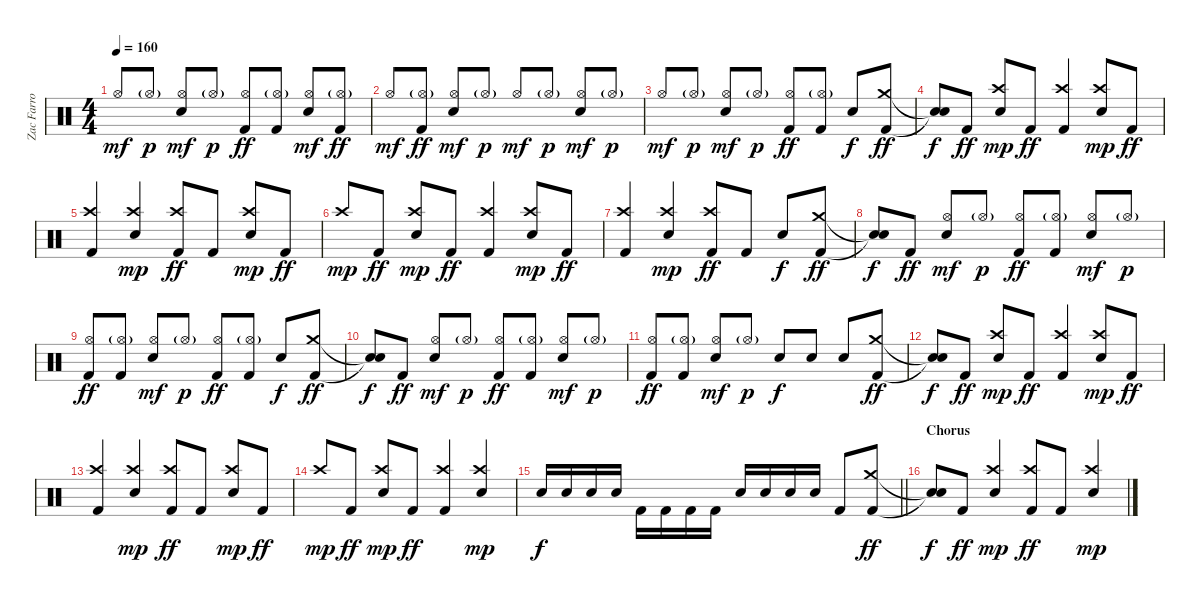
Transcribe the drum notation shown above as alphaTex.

\track ("Zac Farro" "Zac Farro") {instrument percussion}
\staff {score}
\articulation defaults
\ts (4 4)
\tempo 160
\clef neutral
\ks c "Hi-Hat (open)".8{dy mf beam Up} "Hi-Hat (open)"{g}.8{dy p beam Up}
("Hi-Hat (open)" "Snare (hit) 2").8{dy mf beam Up} "Hi-Hat (open)"{g}.8{dy p beam Up} ("Hi-Hat (open)" "Kick (hit) 2").8{dy ff beam Up} ("Hi-Hat (open)"{g} "Kick (hit) 2").8{beam Up} ("Hi-Hat (open)" "Snare (hit) 2").8{dy mf beam Up} ("Hi-Hat (open)"{g} "Kick (hit) 2").8{dy ff beam Up} |
"Hi-Hat (open)".8{dy mf beam Up} ("Hi-Hat (open)"{g} "Kick (hit) 2").8{dy ff beam Up} ("Hi-Hat (open)" "Snare (hit) 2").8{dy mf beam Up} "Hi-Hat (open)"{g}.8{dy p beam Up} "Hi-Hat (open)".8{dy mf beam Up} "Hi-Hat (open)"{g}.8{dy p beam Up} ("Hi-Hat (open)" "Snare (hit) 2").8{dy mf beam Up} "Hi-Hat (open)"{g}.8{dy p beam Up} |
"Hi-Hat (open)".8{dy mf beam Up} "Hi-Hat (open)"{g}.8{dy p beam Up} ("Hi-Hat (open)" "Snare (hit) 2").8{dy mf beam Up} "Hi-Hat (open)"{g}.8{dy p beam Up} ("Hi-Hat (open)" "Kick (hit) 2").8{dy ff beam Up} ("Hi-Hat (open)"{g} "Kick (hit) 2").8{beam Up} "Snare (hit) 2".8{dy f beam Up} ("Crash medium (hit)" "Kick (hit) 2").8{dy ff beam Up} |
("Snare (hit)"{t} "Snare (hit)"{t}).8{dy f beam Up} "Kick (hit) 2".8{dy ff} ("Crash high (hit)" "Snare (hit) 2").8{dy mp beam Up} "Kick (hit) 2".8{dy ff beam Up} ("Crash high (hit)" "Kick (hit) 2").4{beam Up} ("Crash high (hit)" "Snare (hit) 2").8{dy mp beam Up} "Kick (hit) 2".8{dy ff beam Up} |
("Crash high (hit)" "Kick (hit) 2").4{beam Up} ("Crash high (hit)" "Snare (hit) 2").4{dy mp beam Up} ("Crash high (hit)" "Kick (hit) 2").8{dy ff beam Up} "Kick (hit) 2".8{beam Up} ("Crash high (hit)" "Snare (hit) 2").8{dy mp beam Up} "Kick (hit) 2".8{dy ff beam Up} |
"Crash high (hit)".8{dy mp beam Up} "Kick (hit) 2".8{dy ff beam Up} ("Crash high (hit)" "Snare (hit) 2").8{dy mp beam Up} "Kick (hit) 2".8{dy ff beam Up} ("Crash high (hit)" "Kick (hit) 2").4{beam Up} ("Crash high (hit)" "Snare (hit) 2").8{dy mp beam Up} "Kick (hit) 2".8{dy ff beam Up} |
("Crash high (hit)" "Kick (hit) 2").4{beam Up} ("Crash high (hit)" "Snare (hit) 2").4{dy mp beam Up} ("Crash high (hit)" "Kick (hit) 2").8{dy ff beam Up} "Kick (hit) 2".8{beam Up} "Snare (hit) 2".8{dy f beam Up} ("Crash medium (hit)" "Kick (hit) 2").8{dy ff beam Up} |
("Snare (hit)"{t} "Snare (hit)"{t}).8{dy f beam Up} "Kick (hit) 2".8{dy ff} ("Hi-Hat (open)" "Snare (hit) 2").8{dy mf beam Up} "Hi-Hat (open)"{g}.8{dy p beam Up} ("Hi-Hat (open)" "Kick (hit) 2").8{dy ff beam Up} ("Hi-Hat (open)"{g} "Kick (hit) 2").8{beam Up} ("Hi-Hat (open)" "Snare (hit) 2").8{dy mf beam Up} "Hi-Hat (open)"{g}.8{dy p beam Up} |
("Hi-Hat (open)" "Kick (hit) 2").8{dy ff beam Up} ("Hi-Hat (open)"{g} "Kick (hit) 2").8{beam Up} ("Hi-Hat (open)" "Snare (hit) 2").8{dy mf beam Up} "Hi-Hat (open)"{g}.8{dy p beam Up} ("Hi-Hat (open)" "Kick (hit) 2").8{dy ff beam Up} ("Hi-Hat (open)"{g} "Kick (hit) 2").8{beam Up} "Snare (hit) 2".8{dy f beam Up} ("Crash medium (hit)" "Kick (hit) 2").8{dy ff beam Up} |
("Snare (hit)"{t} "Snare (hit)"{t}).8{dy f beam Up} "Kick (hit) 2".8{dy ff} ("Hi-Hat (open)" "Snare (hit) 2").8{dy mf beam Up} "Hi-Hat (open)"{g}.8{dy p beam Up} ("Hi-Hat (open)" "Kick (hit) 2").8{dy ff beam Up} ("Hi-Hat (open)"{g} "Kick (hit) 2").8{beam Up} ("Hi-Hat (open)" "Snare (hit) 2").8{dy mf beam Up} "Hi-Hat (open)"{g}.8{dy p beam Up} |
("Hi-Hat (open)" "Kick (hit) 2").8{dy ff beam Up} ("Hi-Hat (open)"{g} "Kick (hit) 2").8{beam Up} ("Hi-Hat (open)" "Snare (hit) 2").8{dy mf beam Up} "Hi-Hat (open)"{g}.8{dy p beam Up} "Snare (hit) 2".8{dy f beam Up} "Snare (hit) 2".8{beam Up} "Snare (hit) 2".8{beam Up} ("Crash medium (hit)" "Kick (hit) 2").8{dy ff beam Up} |
("Snare (hit)"{t} "Snare (hit)"{t}).8{dy f beam Up} "Kick (hit) 2".8{dy ff} ("Crash high (hit)" "Snare (hit) 2").8{dy mp beam Up} "Kick (hit) 2".8{dy ff beam Up} ("Crash high (hit)" "Kick (hit) 2").4{beam Up} ("Crash high (hit)" "Snare (hit) 2").8{dy mp beam Up} "Kick (hit) 2".8{dy ff beam Up} |
("Crash high (hit)" "Kick (hit) 2").4{beam Up} ("Crash high (hit)" "Snare (hit) 2").4{dy mp beam Up} ("Crash high (hit)" "Kick (hit) 2").8{dy ff beam Up} "Kick (hit) 2".8{beam Up} ("Crash high (hit)" "Snare (hit) 2").8{dy mp beam Up} "Kick (hit) 2".8{dy ff beam Up} |
"Crash high (hit)".8{dy mp beam Up} "Kick (hit) 2".8{dy ff beam Up} ("Crash high (hit)" "Snare (hit) 2").8{dy mp beam Up} "Kick (hit) 2".8{dy ff beam Up} ("Crash high (hit)" "Kick (hit) 2").4{beam Up} ("Crash high (hit)" "Snare (hit) 2").4{dy mp beam Up} |
\barLineRight lightlight "Snare (hit) 2".16{dy f beam Up} "Snare (hit) 2".16{beam Up} "Snare (hit) 2".16{beam Up} "Snare (hit) 2".16{beam Up} "Kick (hit) 2".16{beam Down} "Kick (hit) 2".16{beam Down} "Kick (hit) 2".16{beam Down} "Kick (hit) 2".16{beam Down} "Snare (hit) 2".16{beam Up} "Snare (hit) 2".16{beam Up} "Snare (hit) 2".16{beam Up} "Snare (hit) 2".16{beam Up} "Kick (hit) 2".8{beam Up}
("Crash medium (hit)" "Kick (hit) 2").8{dy ff beam Up} |
\section ("" "Chorus")
("Snare (hit)"{t} "Snare (hit)"{t}).8{dy f beam Up} "Kick (hit) 2".8{dy ff} ("Crash high (hit)" "Snare (hit) 2").4{dy mp beam Up} ("Crash high (hit)" "Kick (hit) 2").8{dy ff beam Up} "Kick (hit) 2".8{beam Up} ("Crash high (hit)" "Snare (hit) 2").4{dy mp beam Up}
